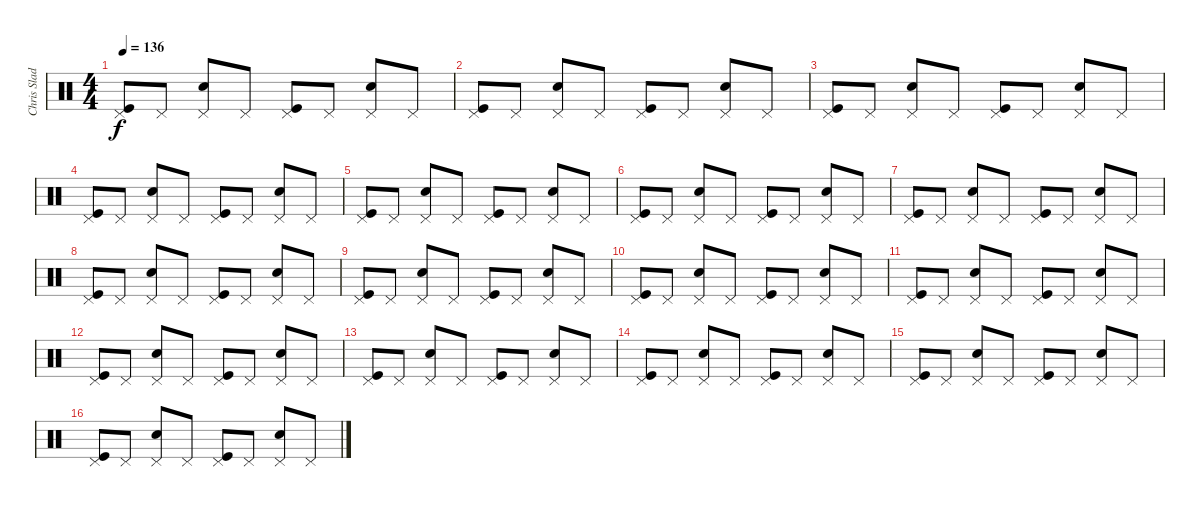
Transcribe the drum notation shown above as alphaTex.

\track ("Chris Slade" "Chris Slad") {instrument percussion}
\staff {score}
\articulation defaults
\ts (4 4)
\tempo 136
\clef neutral
\ks c
("Pedal Hi-Hat (hit)" "Kick (hit)").8{dy f} "Pedal Hi-Hat (hit)".8 ("Pedal Hi-Hat (hit)" "Snare (hit) 2").8 "Pedal Hi-Hat (hit)".8 ("Pedal Hi-Hat (hit)" "Kick (hit)").8 "Pedal Hi-Hat (hit)".8 ("Pedal Hi-Hat (hit)" "Snare (hit) 2").8 "Pedal Hi-Hat (hit)".8 |
("Pedal Hi-Hat (hit)" "Kick (hit)").8 "Pedal Hi-Hat (hit)".8 ("Pedal Hi-Hat (hit)" "Snare (hit) 2").8 "Pedal Hi-Hat (hit)".8 ("Pedal Hi-Hat (hit)" "Kick (hit)").8 "Pedal Hi-Hat (hit)".8 ("Pedal Hi-Hat (hit)" "Snare (hit) 2").8 "Pedal Hi-Hat (hit)".8 |
("Pedal Hi-Hat (hit)" "Kick (hit)").8 "Pedal Hi-Hat (hit)".8 ("Pedal Hi-Hat (hit)" "Snare (hit) 2").8 "Pedal Hi-Hat (hit)".8 ("Pedal Hi-Hat (hit)" "Kick (hit)").8 "Pedal Hi-Hat (hit)".8 ("Pedal Hi-Hat (hit)" "Snare (hit) 2").8 "Pedal Hi-Hat (hit)".8 |
("Pedal Hi-Hat (hit)" "Kick (hit)").8 "Pedal Hi-Hat (hit)".8 ("Pedal Hi-Hat (hit)" "Snare (hit) 2").8 "Pedal Hi-Hat (hit)".8 ("Pedal Hi-Hat (hit)" "Kick (hit)").8 "Pedal Hi-Hat (hit)".8 ("Pedal Hi-Hat (hit)" "Snare (hit) 2").8 "Pedal Hi-Hat (hit)".8 |
("Pedal Hi-Hat (hit)" "Kick (hit)").8 "Pedal Hi-Hat (hit)".8 ("Pedal Hi-Hat (hit)" "Snare (hit) 2").8 "Pedal Hi-Hat (hit)".8 ("Pedal Hi-Hat (hit)" "Kick (hit)").8 "Pedal Hi-Hat (hit)".8 ("Pedal Hi-Hat (hit)" "Snare (hit) 2").8 "Pedal Hi-Hat (hit)".8 |
("Pedal Hi-Hat (hit)" "Kick (hit)").8 "Pedal Hi-Hat (hit)".8 ("Pedal Hi-Hat (hit)" "Snare (hit) 2").8 "Pedal Hi-Hat (hit)".8 ("Pedal Hi-Hat (hit)" "Kick (hit)").8 "Pedal Hi-Hat (hit)".8 ("Pedal Hi-Hat (hit)" "Snare (hit) 2").8 "Pedal Hi-Hat (hit)".8 |
("Pedal Hi-Hat (hit)" "Kick (hit)").8 "Pedal Hi-Hat (hit)".8 ("Pedal Hi-Hat (hit)" "Snare (hit) 2").8 "Pedal Hi-Hat (hit)".8 ("Pedal Hi-Hat (hit)" "Kick (hit)").8 "Pedal Hi-Hat (hit)".8 ("Pedal Hi-Hat (hit)" "Snare (hit) 2").8 "Pedal Hi-Hat (hit)".8 |
("Pedal Hi-Hat (hit)" "Kick (hit)").8 "Pedal Hi-Hat (hit)".8 ("Pedal Hi-Hat (hit)" "Snare (hit) 2").8 "Pedal Hi-Hat (hit)".8 ("Pedal Hi-Hat (hit)" "Kick (hit)").8 "Pedal Hi-Hat (hit)".8 ("Pedal Hi-Hat (hit)" "Snare (hit) 2").8 "Pedal Hi-Hat (hit)".8 |
("Pedal Hi-Hat (hit)" "Kick (hit)").8 "Pedal Hi-Hat (hit)".8 ("Pedal Hi-Hat (hit)" "Snare (hit) 2").8 "Pedal Hi-Hat (hit)".8 ("Pedal Hi-Hat (hit)" "Kick (hit)").8 "Pedal Hi-Hat (hit)".8 ("Pedal Hi-Hat (hit)" "Snare (hit) 2").8 "Pedal Hi-Hat (hit)".8 |
("Pedal Hi-Hat (hit)" "Kick (hit)").8 "Pedal Hi-Hat (hit)".8 ("Pedal Hi-Hat (hit)" "Snare (hit) 2").8 "Pedal Hi-Hat (hit)".8 ("Pedal Hi-Hat (hit)" "Kick (hit)").8 "Pedal Hi-Hat (hit)".8 ("Pedal Hi-Hat (hit)" "Snare (hit) 2").8 "Pedal Hi-Hat (hit)".8 |
("Pedal Hi-Hat (hit)" "Kick (hit)").8 "Pedal Hi-Hat (hit)".8 ("Pedal Hi-Hat (hit)" "Snare (hit) 2").8 "Pedal Hi-Hat (hit)".8 ("Pedal Hi-Hat (hit)" "Kick (hit)").8 "Pedal Hi-Hat (hit)".8 ("Pedal Hi-Hat (hit)" "Snare (hit) 2").8 "Pedal Hi-Hat (hit)".8 |
("Pedal Hi-Hat (hit)" "Kick (hit)").8 "Pedal Hi-Hat (hit)".8 ("Pedal Hi-Hat (hit)" "Snare (hit) 2").8 "Pedal Hi-Hat (hit)".8 ("Pedal Hi-Hat (hit)" "Kick (hit)").8 "Pedal Hi-Hat (hit)".8 ("Pedal Hi-Hat (hit)" "Snare (hit) 2").8 "Pedal Hi-Hat (hit)".8 |
("Pedal Hi-Hat (hit)" "Kick (hit)").8 "Pedal Hi-Hat (hit)".8 ("Pedal Hi-Hat (hit)" "Snare (hit) 2").8 "Pedal Hi-Hat (hit)".8 ("Pedal Hi-Hat (hit)" "Kick (hit)").8 "Pedal Hi-Hat (hit)".8 ("Pedal Hi-Hat (hit)" "Snare (hit) 2").8 "Pedal Hi-Hat (hit)".8 |
("Pedal Hi-Hat (hit)" "Kick (hit)").8 "Pedal Hi-Hat (hit)".8 ("Pedal Hi-Hat (hit)" "Snare (hit) 2").8 "Pedal Hi-Hat (hit)".8 ("Pedal Hi-Hat (hit)" "Kick (hit)").8 "Pedal Hi-Hat (hit)".8 ("Pedal Hi-Hat (hit)" "Snare (hit) 2").8 "Pedal Hi-Hat (hit)".8 |
("Pedal Hi-Hat (hit)" "Kick (hit)").8 "Pedal Hi-Hat (hit)".8 ("Pedal Hi-Hat (hit)" "Snare (hit) 2").8 "Pedal Hi-Hat (hit)".8 ("Pedal Hi-Hat (hit)" "Kick (hit)").8 "Pedal Hi-Hat (hit)".8 ("Pedal Hi-Hat (hit)" "Snare (hit) 2").8 "Pedal Hi-Hat (hit)".8 |
("Pedal Hi-Hat (hit)" "Kick (hit)").8 "Pedal Hi-Hat (hit)".8 ("Pedal Hi-Hat (hit)" "Snare (hit) 2").8 "Pedal Hi-Hat (hit)".8 ("Pedal Hi-Hat (hit)" "Kick (hit)").8 "Pedal Hi-Hat (hit)".8 ("Pedal Hi-Hat (hit)" "Snare (hit) 2").8 "Pedal Hi-Hat (hit)".8
